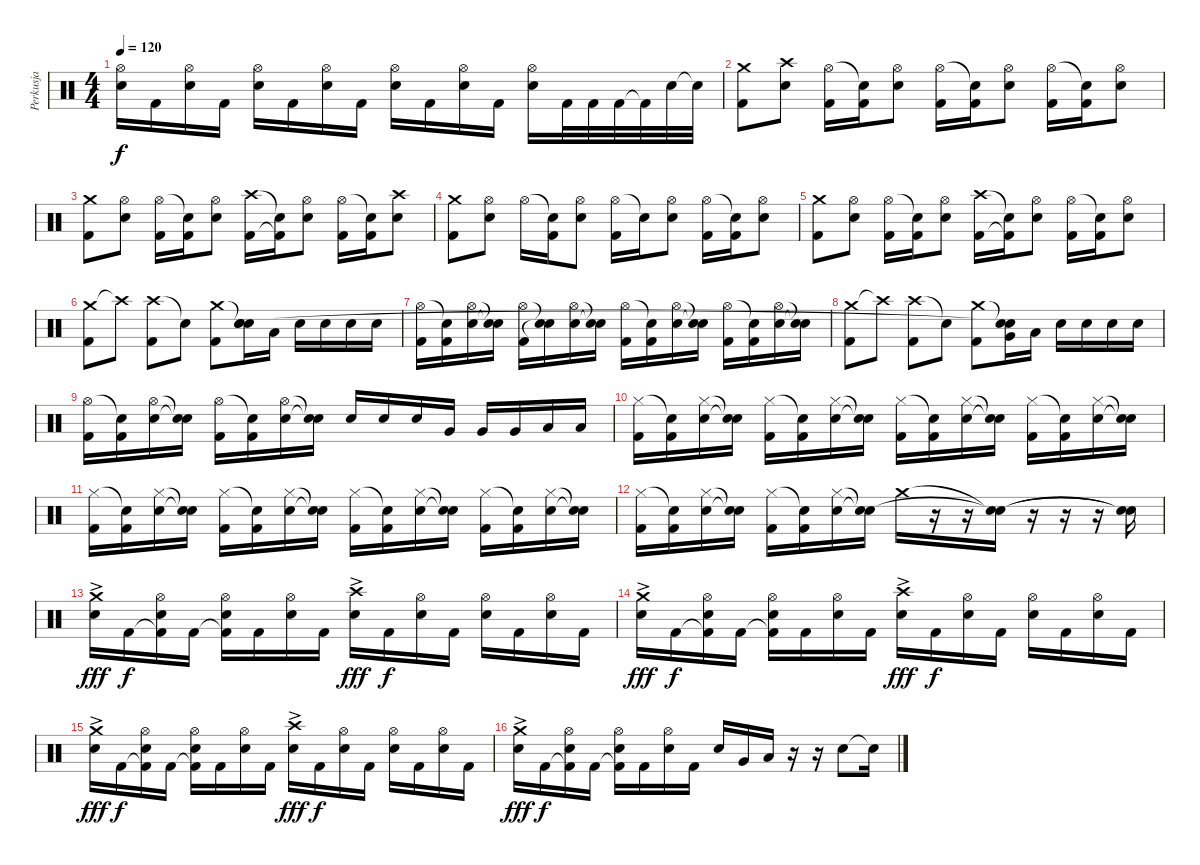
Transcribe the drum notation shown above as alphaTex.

\track ("Perkusja" "Perkusja") {instrument percussion}
\staff {score}
\articulation defaults
\ts (4 4)
\tempo 120
\clef neutral
\ks c
("Electric Snare (hit)" "Hi-Hat (open)").16{dy f} "Kick (hit) 2".16 ("Electric Snare (hit)" "Hi-Hat (open)").16 "Kick (hit) 2".16 ("Electric Snare (hit)" "Hi-Hat (open)").16 "Kick (hit) 2".16 ("Electric Snare (hit)" "Hi-Hat (open)").16 "Kick (hit) 2".16 ("Electric Snare (hit)" "Hi-Hat (open)").16 "Kick (hit) 2".16 ("Electric Snare (hit)" "Hi-Hat (open)").16 "Kick (hit) 2".16 ("Electric Snare (hit)" "Hi-Hat (open)").16 "Kick (hit) 2".32 "Kick (hit) 2".32 "Kick (hit) 2".32 "Kick (hit) 2"{t}.32 "Electric Snare (hit)".32 "Snare (hit)"{t}.32 |
("Crash medium (hit)" "Kick (hit) 2").8 ("Crash high (hit)" "Electric Snare (hit)").8 ("Hi-Hat (open)" "Kick (hit) 2").16 ("Snare (hit)"{t} "Kick (hit) 2").16 ("Hi-Hat (open)" "Electric Snare (hit)").8 ("Hi-Hat (open)" "Kick (hit) 2").16 ("Snare (hit)"{t} "Kick (hit) 2").16 ("Hi-Hat (open)" "Electric Snare (hit)").8 ("Hi-Hat (open)" "Kick (hit) 2").16 ("Snare (hit)"{t} "Kick (hit) 2").16 ("Hi-Hat (open)" "Electric Snare (hit)").8 |
("Crash medium (hit)" "Kick (hit) 2").8 ("Hi-Hat (open)" "Electric Snare (hit)").8 ("Hi-Hat (open)" "Kick (hit) 2").16 ("Snare (hit)"{t} "Kick (hit) 2").16 ("Hi-Hat (open)" "Electric Snare (hit)").8 ("Crash high (hit)" "Kick (hit) 2").16 ("Snare (hit)"{t} "Kick (hit) 2"{t}).16 ("Hi-Hat (open)" "Electric Snare (hit)").8 ("Hi-Hat (open)" "Kick (hit) 2").16 ("Snare (hit)"{t} "Kick (hit) 2").16 ("Crash high (hit)" "Electric Snare (hit)").8 |
("Crash medium (hit)" "Kick (hit) 2").8 ("Hi-Hat (open)" "Electric Snare (hit)").8 "Hi-Hat (open)".16 ("Snare (hit)"{t} "Kick (hit) 2").16 ("Hi-Hat (open)" "Electric Snare (hit)").8 ("Hi-Hat (open)" "Kick (hit) 2").16 "Snare (hit)"{t}.16 ("Hi-Hat (open)" "Electric Snare (hit)").8 ("Hi-Hat (open)" "Kick (hit) 2").16 ("Snare (hit)"{t} "Kick (hit) 2").16 ("Hi-Hat (open)" "Electric Snare (hit)").8 |
("Crash medium (hit)" "Kick (hit) 2").8 ("Hi-Hat (open)" "Electric Snare (hit)").8 ("Hi-Hat (open)" "Kick (hit) 2").16 ("Snare (hit)"{t} "Kick (hit) 2").16 ("Hi-Hat (open)" "Electric Snare (hit)").8 ("Crash high (hit)" "Kick (hit) 2").16 ("Snare (hit)"{t} "Kick (hit) 2"{t}).16 ("Hi-Hat (open)" "Electric Snare (hit)").8 ("Hi-Hat (open)" "Kick (hit) 2").16 ("Snare (hit)"{t} "Kick (hit) 2").16 ("Hi-Hat (open)" "Electric Snare (hit)").8 |
("Crash medium (hit)" "Kick (hit) 2").8 "Crash high (hit)"{t}.8 ("Crash high (hit)" "Kick (hit) 2").8 "Snare (hit)"{t}.8 ("Crash medium (hit)" "Kick (hit) 2").8 ("Snare (hit)"{t} "Electric Snare (hit)" "Snare (hit)").16 "Low Tom (hit)".16 "Electric Snare (hit)".16 "Electric Snare (hit)".16 "Electric Snare (hit)".16 "Electric Snare (hit)".16 |
("Hi-Hat (open)" "Kick (hit) 2").16 ("Snare (hit)"{t} "Kick (hit) 2").16 ("Hi-Hat (open)" "Electric Snare (hit)").16 ("Snare (hit)"{t} "Snare (hit)"{t}).16 ("Hi-Hat (open)" "Kick (hit) 2").16 ("Snare (hit)"{t} "Snare (hit)"{t}).16 ("Hi-Hat (open)" "Electric Snare (hit)").16 ("Snare (hit)"{t} "Snare (hit)"{t}).16 ("Hi-Hat (open)" "Kick (hit) 2").16 ("Snare (hit)"{t} "Kick (hit) 2").16 ("Hi-Hat (open)" "Electric Snare (hit)").16 ("Snare (hit)"{t} "Snare (hit)"{t}).16 ("Hi-Hat (open)" "Kick (hit) 2").16 ("Snare (hit)"{t} "Kick (hit) 2").16 ("Hi-Hat (open)" "Electric Snare (hit)").16 ("Snare (hit)"{t} "Snare (hit)"{t}).16 |
("Crash medium (hit)" "Kick (hit) 2").8 "Crash high (hit)"{t}.8 ("Crash high (hit)" "Kick (hit) 2").8 "Snare (hit)"{t}.8 ("Crash medium (hit)" "Kick (hit) 2").8 ("Snare (hit)"{t} "Very Low Tom (hit)" "Snare (hit)"{t}).16 "Low Tom (hit)".16 "Electric Snare (hit)".16 "Electric Snare (hit)".16 "Electric Snare (hit)".16 "Electric Snare (hit)".16 |
("Hi-Hat (open)" "Kick (hit) 2").16 ("Snare (hit)"{t} "Kick (hit) 2").16 ("Hi-Hat (open)" "Electric Snare (hit)").16 ("Snare (hit)"{t} "Snare (hit)"{t}).16 ("Hi-Hat (open)" "Kick (hit) 2").16 ("Snare (hit)"{t} "Kick (hit) 2").16 ("Hi-Hat (open)" "Electric Snare (hit)").16 ("Snare (hit)"{t} "Snare (hit)"{t}).16 "Electric Snare (hit)".16 "Electric Snare (hit)".16 "Electric Snare (hit)".16 "Very Low Tom (hit)".16 "Very Low Tom (hit)".16 "Very Low Tom (hit)".16 "Low Floor Tom (hit)".16 "Low Floor Tom (hit)".16 |
("Hi-Hat (closed)" "Kick (hit) 2").16 ("Snare (hit)"{t} "Kick (hit) 2").16 ("Hi-Hat (closed)" "Electric Snare (hit)").16 ("Snare (hit)"{t} "Snare (hit)"{t}).16 ("Hi-Hat (closed)" "Kick (hit) 2").16 ("Snare (hit)"{t} "Kick (hit) 2").16 ("Hi-Hat (closed)" "Electric Snare (hit)").16 ("Snare (hit)"{t} "Snare (hit)"{t}).16 ("Hi-Hat (closed)" "Kick (hit) 2").16 ("Snare (hit)"{t} "Kick (hit) 2").16 ("Hi-Hat (closed)" "Electric Snare (hit)").16 ("Snare (hit)"{t} "Snare (hit)"{t}).16 ("Hi-Hat (closed)" "Kick (hit) 2").16 ("Snare (hit)"{t} "Kick (hit) 2").16 ("Hi-Hat (closed)" "Electric Snare (hit)").16 ("Snare (hit)"{t} "Snare (hit)"{t}).16 |
("Hi-Hat (closed)" "Kick (hit) 2").16 ("Snare (hit)"{t} "Kick (hit) 2").16 ("Hi-Hat (closed)" "Electric Snare (hit)").16 ("Snare (hit)"{t} "Snare (hit)"{t}).16 ("Hi-Hat (closed)" "Kick (hit) 2").16 ("Snare (hit)"{t} "Kick (hit) 2").16 ("Hi-Hat (closed)" "Electric Snare (hit)").16 ("Snare (hit)"{t} "Snare (hit)"{t}).16 ("Hi-Hat (closed)" "Kick (hit) 2").16 ("Snare (hit)"{t} "Kick (hit) 2").16 ("Hi-Hat (closed)" "Electric Snare (hit)").16 ("Snare (hit)"{t} "Snare (hit)"{t}).16 ("Hi-Hat (closed)" "Kick (hit) 2").16 ("Snare (hit)"{t} "Kick (hit) 2").16 ("Hi-Hat (closed)" "Electric Snare (hit)").16 ("Snare (hit)"{t} "Snare (hit)"{t}).16 |
("Hi-Hat (closed)" "Kick (hit) 2").16 ("Snare (hit)"{t} "Kick (hit) 2").16 ("Hi-Hat (closed)" "Electric Snare (hit)").16 ("Snare (hit)"{t} "Snare (hit)"{t}).16 ("Hi-Hat (closed)" "Kick (hit) 2").16 ("Snare (hit)"{t} "Kick (hit) 2").16 ("Hi-Hat (closed)" "Electric Snare (hit)").16 ("Snare (hit)"{t} "Snare (hit)"{t}).16 "Crash medium (hit)".16 r.16 r.16 ("Snare (hit)"{t} "Snare (hit)"{t}).16 r.16 r.16 r.16 ("Snare (hit)"{t} "Snare (hit)"{t}).16 |
("Electric Snare (hit)"{ac} "Crash medium (hit)").16{dy fff} "Kick (hit) 2".16{dy f} ("Kick (hit) 2"{t} "Hi-Hat (open)" "Electric Snare (hit)").16 "Kick (hit) 2".16 ("Kick (hit) 2"{t} "Hi-Hat (open)" "Electric Snare (hit)").16 "Kick (hit) 2".16 ("Hi-Hat (open)" "Electric Snare (hit)").16 "Kick (hit) 2".16 ("Electric Snare (hit)"{ac} "Crash high (hit)").16{dy fff} "Kick (hit) 2".16{dy f} ("Hi-Hat (open)" "Electric Snare (hit)").16 "Kick (hit) 2".16 ("Hi-Hat (open)" "Electric Snare (hit)").16 "Kick (hit) 2".16 ("Hi-Hat (open)" "Electric Snare (hit)").16 "Kick (hit) 2".16 |
("Electric Snare (hit)"{ac} "Crash medium (hit)").16{dy fff} "Kick (hit) 2".16{dy f} ("Kick (hit) 2"{t} "Hi-Hat (open)" "Electric Snare (hit)").16 "Kick (hit) 2".16 ("Kick (hit) 2"{t} "Hi-Hat (open)" "Electric Snare (hit)").16 "Kick (hit) 2".16 ("Hi-Hat (open)" "Electric Snare (hit)").16 "Kick (hit) 2".16 ("Electric Snare (hit)"{ac} "Crash high (hit)").16{dy fff} "Kick (hit) 2".16{dy f} ("Hi-Hat (open)" "Electric Snare (hit)").16 "Kick (hit) 2".16 ("Hi-Hat (open)" "Electric Snare (hit)").16 "Kick (hit) 2".16 ("Hi-Hat (open)" "Electric Snare (hit)").16 "Kick (hit) 2".16 |
("Electric Snare (hit)"{ac} "Crash medium (hit)").16{dy fff} "Kick (hit) 2".16{dy f} ("Kick (hit) 2"{t} "Hi-Hat (open)" "Electric Snare (hit)").16 "Kick (hit) 2".16 ("Kick (hit) 2"{t} "Hi-Hat (open)" "Electric Snare (hit)").16 "Kick (hit) 2".16 ("Hi-Hat (open)" "Electric Snare (hit)").16 "Kick (hit) 2".16 ("Electric Snare (hit)"{ac} "Crash high (hit)").16{dy fff} "Kick (hit) 2".16{dy f} ("Hi-Hat (open)" "Electric Snare (hit)").16 "Kick (hit) 2".16 ("Hi-Hat (open)" "Electric Snare (hit)").16 "Kick (hit) 2".16 ("Hi-Hat (open)" "Electric Snare (hit)").16 "Kick (hit) 2".16 |
("Electric Snare (hit)"{ac} "Crash medium (hit)").16{dy fff} "Kick (hit) 2".16{dy f} ("Kick (hit) 2"{t} "Hi-Hat (open)" "Electric Snare (hit)").16 "Kick (hit) 2".16 ("Kick (hit) 2"{t} "Hi-Hat (open)" "Electric Snare (hit)").16 "Kick (hit) 2".16 ("Hi-Hat (open)" "Electric Snare (hit)").16 "Kick (hit) 2".16 "Electric Snare (hit)".16 "Very Low Tom (hit)".16 "Low Tom (hit)".16 r.16 r.16 "Electric Snare (hit)".8 "Snare (hit)"{t}.16
